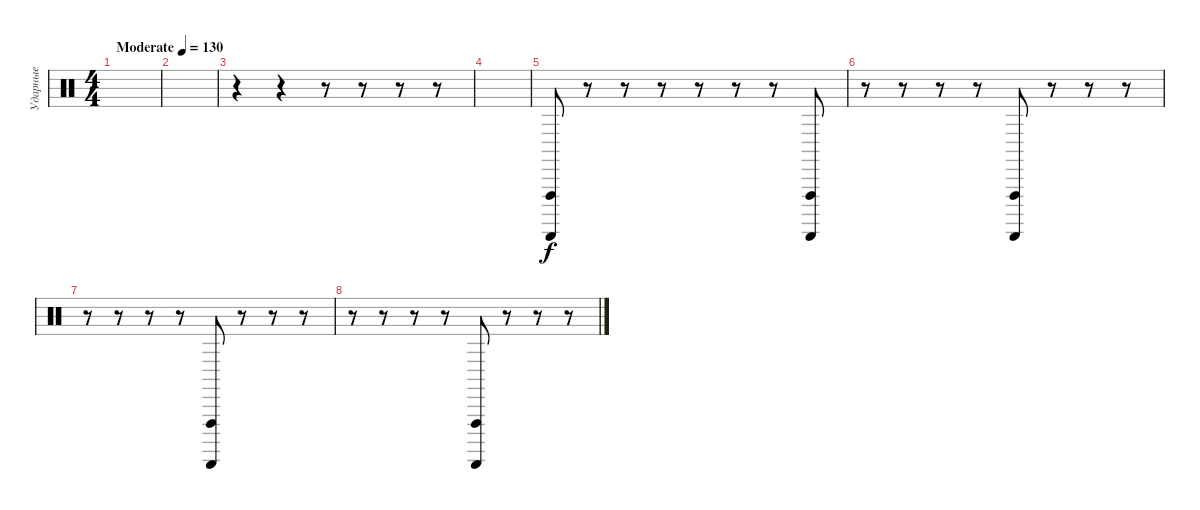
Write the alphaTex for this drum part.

\track ("Ударные" "Ударные") {instrument percussion}
\staff {score}
\articulation defaults
\ts (4 4)
\tempo (130 "Moderate")
\clef neutral
\ks c
|
|
r.4 r.4 r.8 r.8 r.8 r.8 |
|
("Vibraslap (hit)" "Guiro (scrap-return)").8 r.8 r.8 r.8 r.8 r.8 r.8 ("Vibraslap (hit)" "Guiro (scrap-return)").8 |
r.8 r.8 r.8 r.8 ("Vibraslap (hit)" "Guiro (scrap-return)").8 r.8 r.8 r.8 |
r.8 r.8 r.8 r.8 ("Vibraslap (hit)" "Guiro (scrap-return)").8 r.8 r.8 r.8 |
r.8 r.8 r.8 r.8 ("Vibraslap (hit)" "Guiro (scrap-return)").8 r.8 r.8 r.8
